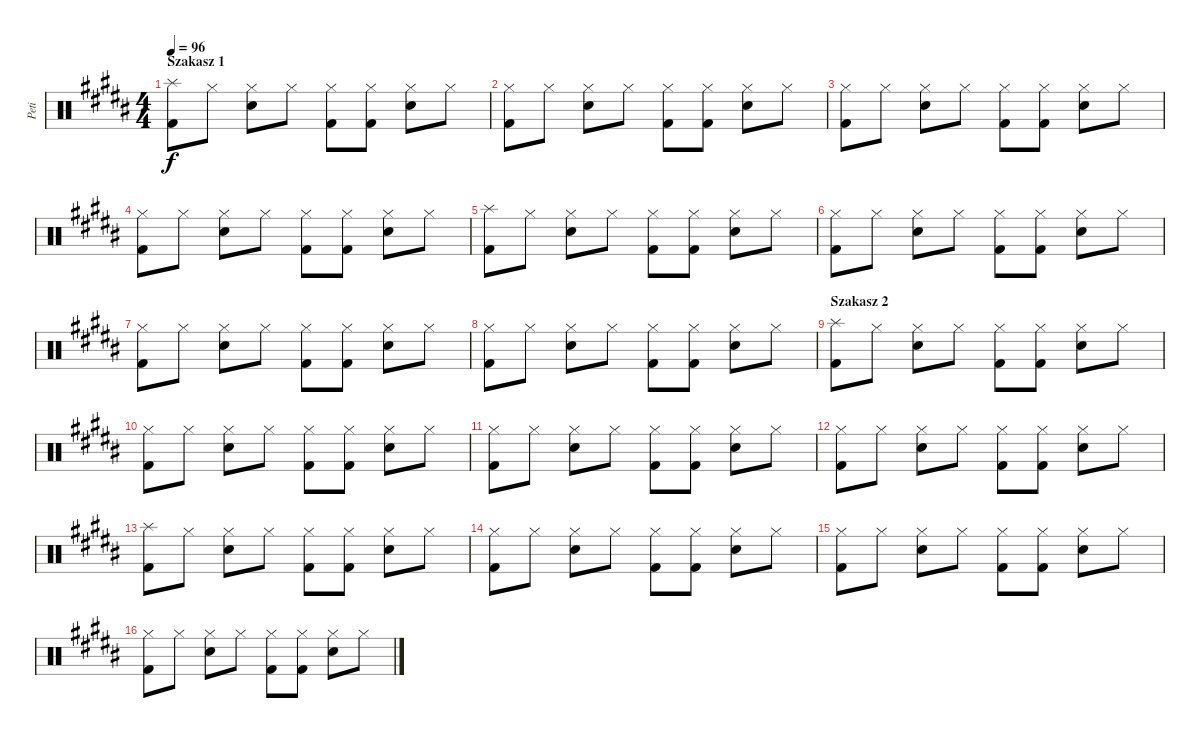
\track ("Peti" "Peti") {instrument percussion}
\staff {score}
\articulation defaults
\ts (4 4)
\section ("" "Szakasz 1")
\tempo 96
\clef neutral
\ks g#minor
("Splash (hit)" "Kick (hit) 2").8{dy f} "Hi-Hat (closed)".8 ("Hi-Hat (closed)" "Snare (hit) 2").8 "Hi-Hat (closed)".8 ("Hi-Hat (closed)" "Kick (hit) 2").8 ("Hi-Hat (closed)" "Kick (hit) 2").8 ("Hi-Hat (closed)" "Snare (hit) 2").8 "Hi-Hat (closed)".8 |
("Hi-Hat (closed)" "Kick (hit) 2").8 "Hi-Hat (closed)".8 ("Hi-Hat (closed)" "Snare (hit) 2").8 "Hi-Hat (closed)".8 ("Hi-Hat (closed)" "Kick (hit) 2").8 ("Hi-Hat (closed)" "Kick (hit) 2").8 ("Hi-Hat (closed)" "Snare (hit) 2").8 "Hi-Hat (closed)".8 |
("Hi-Hat (closed)" "Kick (hit) 2").8 "Hi-Hat (closed)".8 ("Hi-Hat (closed)" "Snare (hit) 2").8 "Hi-Hat (closed)".8 ("Hi-Hat (closed)" "Kick (hit) 2").8 ("Hi-Hat (closed)" "Kick (hit) 2").8 ("Hi-Hat (closed)" "Snare (hit) 2").8 "Hi-Hat (closed)".8 |
("Hi-Hat (closed)" "Kick (hit) 2").8 "Hi-Hat (closed)".8 ("Hi-Hat (closed)" "Snare (hit) 2").8 "Hi-Hat (closed)".8 ("Hi-Hat (closed)" "Kick (hit) 2").8 ("Hi-Hat (closed)" "Kick (hit) 2").8 ("Hi-Hat (closed)" "Snare (hit) 2").8 "Hi-Hat (closed)".8 |
("Splash (hit)" "Kick (hit) 2").8 "Hi-Hat (closed)".8 ("Hi-Hat (closed)" "Snare (hit) 2").8 "Hi-Hat (closed)".8 ("Hi-Hat (closed)" "Kick (hit) 2").8 ("Hi-Hat (closed)" "Kick (hit) 2").8 ("Hi-Hat (closed)" "Snare (hit) 2").8 "Hi-Hat (closed)".8 |
("Hi-Hat (closed)" "Kick (hit) 2").8 "Hi-Hat (closed)".8 ("Hi-Hat (closed)" "Snare (hit) 2").8 "Hi-Hat (closed)".8 ("Hi-Hat (closed)" "Kick (hit) 2").8 ("Hi-Hat (closed)" "Kick (hit) 2").8 ("Hi-Hat (closed)" "Snare (hit) 2").8 "Hi-Hat (closed)".8 |
("Hi-Hat (closed)" "Kick (hit) 2").8 "Hi-Hat (closed)".8 ("Hi-Hat (closed)" "Snare (hit) 2").8 "Hi-Hat (closed)".8 ("Hi-Hat (closed)" "Kick (hit) 2").8 ("Hi-Hat (closed)" "Kick (hit) 2").8 ("Hi-Hat (closed)" "Snare (hit) 2").8 "Hi-Hat (closed)".8 |
("Hi-Hat (closed)" "Kick (hit) 2").8 "Hi-Hat (closed)".8 ("Hi-Hat (closed)" "Snare (hit) 2").8 "Hi-Hat (closed)".8 ("Hi-Hat (closed)" "Kick (hit) 2").8 ("Hi-Hat (closed)" "Kick (hit) 2").8 ("Hi-Hat (closed)" "Snare (hit) 2").8 "Hi-Hat (closed)".8 |
\section ("" "Szakasz 2")
("Splash (hit)" "Kick (hit) 2").8 "Hi-Hat (closed)".8 ("Hi-Hat (closed)" "Snare (hit) 2").8 "Hi-Hat (closed)".8 ("Hi-Hat (closed)" "Kick (hit) 2").8 ("Hi-Hat (closed)" "Kick (hit) 2").8 ("Hi-Hat (closed)" "Snare (hit) 2").8 "Hi-Hat (closed)".8 |
("Hi-Hat (closed)" "Kick (hit) 2").8 "Hi-Hat (closed)".8 ("Hi-Hat (closed)" "Snare (hit) 2").8 "Hi-Hat (closed)".8 ("Hi-Hat (closed)" "Kick (hit) 2").8 ("Hi-Hat (closed)" "Kick (hit) 2").8 ("Hi-Hat (closed)" "Snare (hit) 2").8 "Hi-Hat (closed)".8 |
("Hi-Hat (closed)" "Kick (hit) 2").8 "Hi-Hat (closed)".8 ("Hi-Hat (closed)" "Snare (hit) 2").8 "Hi-Hat (closed)".8 ("Hi-Hat (closed)" "Kick (hit) 2").8 ("Hi-Hat (closed)" "Kick (hit) 2").8 ("Hi-Hat (closed)" "Snare (hit) 2").8 "Hi-Hat (closed)".8 |
("Hi-Hat (closed)" "Kick (hit) 2").8 "Hi-Hat (closed)".8 ("Hi-Hat (closed)" "Snare (hit) 2").8 "Hi-Hat (closed)".8 ("Hi-Hat (closed)" "Kick (hit) 2").8 ("Hi-Hat (closed)" "Kick (hit) 2").8 ("Hi-Hat (closed)" "Snare (hit) 2").8 "Hi-Hat (closed)".8 |
("Splash (hit)" "Kick (hit) 2").8 "Hi-Hat (closed)".8 ("Hi-Hat (closed)" "Snare (hit) 2").8 "Hi-Hat (closed)".8 ("Hi-Hat (closed)" "Kick (hit) 2").8 ("Hi-Hat (closed)" "Kick (hit) 2").8 ("Hi-Hat (closed)" "Snare (hit) 2").8 "Hi-Hat (closed)".8 |
("Hi-Hat (closed)" "Kick (hit) 2").8 "Hi-Hat (closed)".8 ("Hi-Hat (closed)" "Snare (hit) 2").8 "Hi-Hat (closed)".8 ("Hi-Hat (closed)" "Kick (hit) 2").8 ("Hi-Hat (closed)" "Kick (hit) 2").8 ("Hi-Hat (closed)" "Snare (hit) 2").8 "Hi-Hat (closed)".8 |
("Hi-Hat (closed)" "Kick (hit) 2").8 "Hi-Hat (closed)".8 ("Hi-Hat (closed)" "Snare (hit) 2").8 "Hi-Hat (closed)".8 ("Hi-Hat (closed)" "Kick (hit) 2").8 ("Hi-Hat (closed)" "Kick (hit) 2").8 ("Hi-Hat (closed)" "Snare (hit) 2").8 "Hi-Hat (closed)".8 |
("Hi-Hat (closed)" "Kick (hit) 2").8 "Hi-Hat (closed)".8 ("Hi-Hat (closed)" "Snare (hit) 2").8 "Hi-Hat (closed)".8 ("Hi-Hat (closed)" "Kick (hit) 2").8 ("Hi-Hat (closed)" "Kick (hit) 2").8 ("Hi-Hat (closed)" "Snare (hit) 2").8 "Hi-Hat (closed)".8
